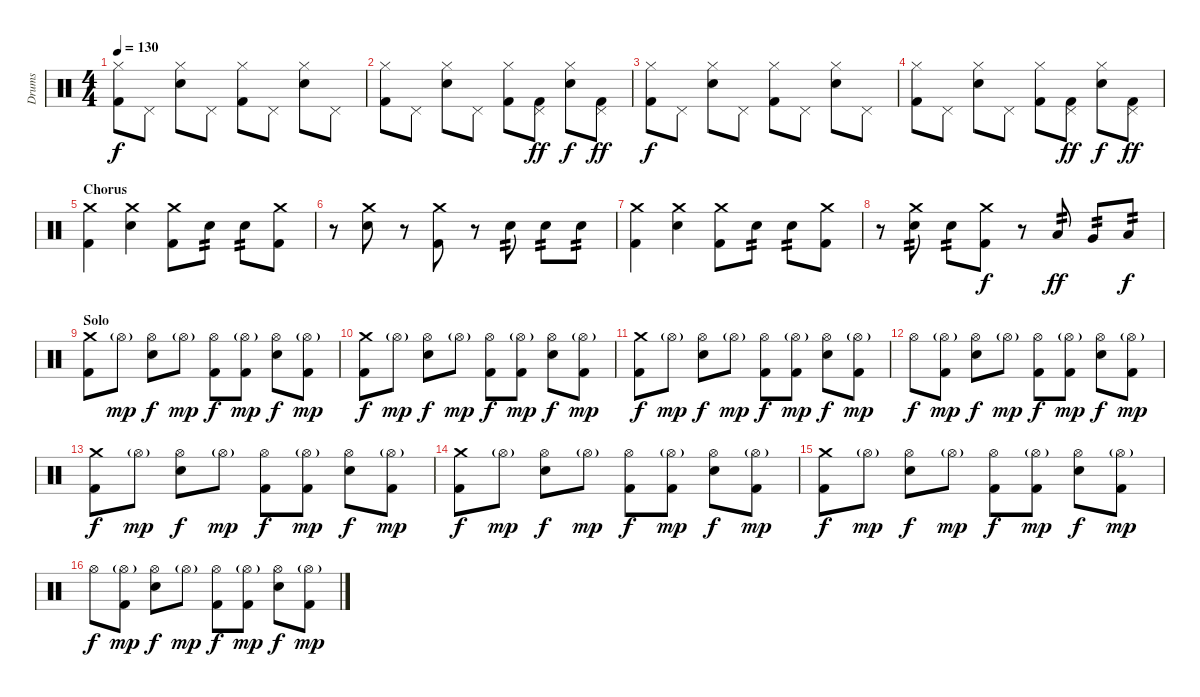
\track ("Drums" "Drums") {instrument percussion}
\staff {score}
\articulation defaults
\ts (4 4)
\tempo 130
\clef neutral
\ks c
("Kick (hit) 2" "Hi-Hat (closed)").8{dy f} "Pedal Hi-Hat (hit)".8 ("Electric Snare (hit)" "Hi-Hat (closed)").8 "Pedal Hi-Hat (hit)".8 ("Kick (hit) 2" "Hi-Hat (closed)").8 "Pedal Hi-Hat (hit)".8 ("Electric Snare (hit)" "Hi-Hat (closed)").8 "Pedal Hi-Hat (hit)".8 |
("Kick (hit) 2" "Hi-Hat (closed)").8 "Pedal Hi-Hat (hit)".8 ("Electric Snare (hit)" "Hi-Hat (closed)").8 "Pedal Hi-Hat (hit)".8 ("Kick (hit) 2" "Hi-Hat (closed)").8 ("Kick (hit) 2" "Pedal Hi-Hat (hit)").8{dy ff} ("Electric Snare (hit)" "Hi-Hat (closed)").8{dy f} ("Kick (hit) 2" "Pedal Hi-Hat (hit)").8{dy ff} |
("Kick (hit) 2" "Hi-Hat (closed)").8{dy f} "Pedal Hi-Hat (hit)".8 ("Electric Snare (hit)" "Hi-Hat (closed)").8 "Pedal Hi-Hat (hit)".8 ("Kick (hit) 2" "Hi-Hat (closed)").8 "Pedal Hi-Hat (hit)".8 ("Electric Snare (hit)" "Hi-Hat (closed)").8 "Pedal Hi-Hat (hit)".8 |
("Kick (hit) 2" "Hi-Hat (closed)").8 "Pedal Hi-Hat (hit)".8 ("Electric Snare (hit)" "Hi-Hat (closed)").8 "Pedal Hi-Hat (hit)".8 ("Kick (hit) 2" "Hi-Hat (closed)").8 ("Kick (hit) 2" "Pedal Hi-Hat (hit)").8{dy ff} ("Electric Snare (hit)" "Hi-Hat (closed)").8{dy f} ("Kick (hit) 2" "Pedal Hi-Hat (hit)").8{dy ff} |
\section ("" "Chorus")
("Kick (hit) 2" "Crash medium (hit)").4 ("Electric Snare (hit)" "Crash medium (hit)").4 ("Kick (hit) 2" "Crash medium (hit)").8 "Electric Snare (hit)".8{tp 2} "Electric Snare (hit)".8{tp 2} ("Kick (hit) 2" "Crash medium (hit)").8 |
r.8 ("Electric Snare (hit)" "Crash medium (hit)").8 r.8 ("Kick (hit) 2" "Crash medium (hit)").8 r.8 "Electric Snare (hit)".8{tp 2} "Electric Snare (hit)".8{tp 2} "Electric Snare (hit)".8{tp 2} |
("Kick (hit) 2" "Crash medium (hit)").4 ("Electric Snare (hit)" "Crash medium (hit)").4 ("Kick (hit) 2" "Crash medium (hit)").8 "Electric Snare (hit)".8{tp 2} "Electric Snare (hit)".8{tp 2} ("Kick (hit) 2" "Crash medium (hit)").8 |
r.8 ("Electric Snare (hit)" "Crash medium (hit)").8{tp 2} "Electric Snare (hit)".8{tp 2} ("Kick (hit) 2" "Crash medium (hit)").8{dy f} r.8 "Low Tom (hit)".8{tp 2 dy ff} "Very Low Tom (hit)".8{tp 2} "Low Floor Tom (hit)".8{tp 2 dy f} |
\section ("" "Solo")
("Kick (hit) 2" "Crash medium (hit)").8 "Hi-Hat (open)"{g}.8{dy mp} ("Electric Snare (hit)" "Hi-Hat (open)").8{dy f} "Hi-Hat (open)"{g}.8{dy mp} ("Kick (hit) 2" "Hi-Hat (open)").8{dy f} ("Kick (hit) 2" "Hi-Hat (open)"{g}).8{dy mp} ("Electric Snare (hit)" "Hi-Hat (open)").8{dy f} ("Kick (hit) 2" "Hi-Hat (open)"{g}).8{dy mp} |
("Kick (hit) 2" "Crash medium (hit)").8{dy f} "Hi-Hat (open)"{g}.8{dy mp} ("Electric Snare (hit)" "Hi-Hat (open)").8{dy f} "Hi-Hat (open)"{g}.8{dy mp} ("Kick (hit) 2" "Hi-Hat (open)").8{dy f} ("Kick (hit) 2" "Hi-Hat (open)"{g}).8{dy mp} ("Electric Snare (hit)" "Hi-Hat (open)").8{dy f} ("Kick (hit) 2" "Hi-Hat (open)"{g}).8{dy mp} |
("Kick (hit) 2" "Crash medium (hit)").8{dy f} "Hi-Hat (open)"{g}.8{dy mp} ("Electric Snare (hit)" "Hi-Hat (open)").8{dy f} "Hi-Hat (open)"{g}.8{dy mp} ("Kick (hit) 2" "Hi-Hat (open)").8{dy f} ("Kick (hit) 2" "Hi-Hat (open)"{g}).8{dy mp} ("Electric Snare (hit)" "Hi-Hat (open)").8{dy f} ("Kick (hit) 2" "Hi-Hat (open)"{g}).8{dy mp} |
"Hi-Hat (open)".8{dy f} ("Kick (hit) 2" "Hi-Hat (open)"{g}).8{dy mp} ("Electric Snare (hit)" "Hi-Hat (open)").8{dy f} "Hi-Hat (open)"{g}.8{dy mp} ("Kick (hit) 2" "Hi-Hat (open)").8{dy f} ("Kick (hit) 2" "Hi-Hat (open)"{g}).8{dy mp} ("Electric Snare (hit)" "Hi-Hat (open)").8{dy f} ("Kick (hit) 2" "Hi-Hat (open)"{g}).8{dy mp} |
("Kick (hit) 2" "Crash medium (hit)").8{dy f} "Hi-Hat (open)"{g}.8{dy mp} ("Electric Snare (hit)" "Hi-Hat (open)").8{dy f} "Hi-Hat (open)"{g}.8{dy mp} ("Kick (hit) 2" "Hi-Hat (open)").8{dy f} ("Kick (hit) 2" "Hi-Hat (open)"{g}).8{dy mp} ("Electric Snare (hit)" "Hi-Hat (open)").8{dy f} ("Kick (hit) 2" "Hi-Hat (open)"{g}).8{dy mp} |
("Kick (hit) 2" "Crash medium (hit)").8{dy f} "Hi-Hat (open)"{g}.8{dy mp} ("Electric Snare (hit)" "Hi-Hat (open)").8{dy f} "Hi-Hat (open)"{g}.8{dy mp} ("Kick (hit) 2" "Hi-Hat (open)").8{dy f} ("Kick (hit) 2" "Hi-Hat (open)"{g}).8{dy mp} ("Electric Snare (hit)" "Hi-Hat (open)").8{dy f} ("Kick (hit) 2" "Hi-Hat (open)"{g}).8{dy mp} |
("Kick (hit) 2" "Crash medium (hit)").8{dy f} "Hi-Hat (open)"{g}.8{dy mp} ("Electric Snare (hit)" "Hi-Hat (open)").8{dy f} "Hi-Hat (open)"{g}.8{dy mp} ("Kick (hit) 2" "Hi-Hat (open)").8{dy f} ("Kick (hit) 2" "Hi-Hat (open)"{g}).8{dy mp} ("Electric Snare (hit)" "Hi-Hat (open)").8{dy f} ("Kick (hit) 2" "Hi-Hat (open)"{g}).8{dy mp} |
"Hi-Hat (open)".8{dy f} ("Kick (hit) 2" "Hi-Hat (open)"{g}).8{dy mp} ("Electric Snare (hit)" "Hi-Hat (open)").8{dy f} "Hi-Hat (open)"{g}.8{dy mp} ("Kick (hit) 2" "Hi-Hat (open)").8{dy f} ("Kick (hit) 2" "Hi-Hat (open)"{g}).8{dy mp} ("Electric Snare (hit)" "Hi-Hat (open)").8{dy f} ("Kick (hit) 2" "Hi-Hat (open)"{g}).8{dy mp}
